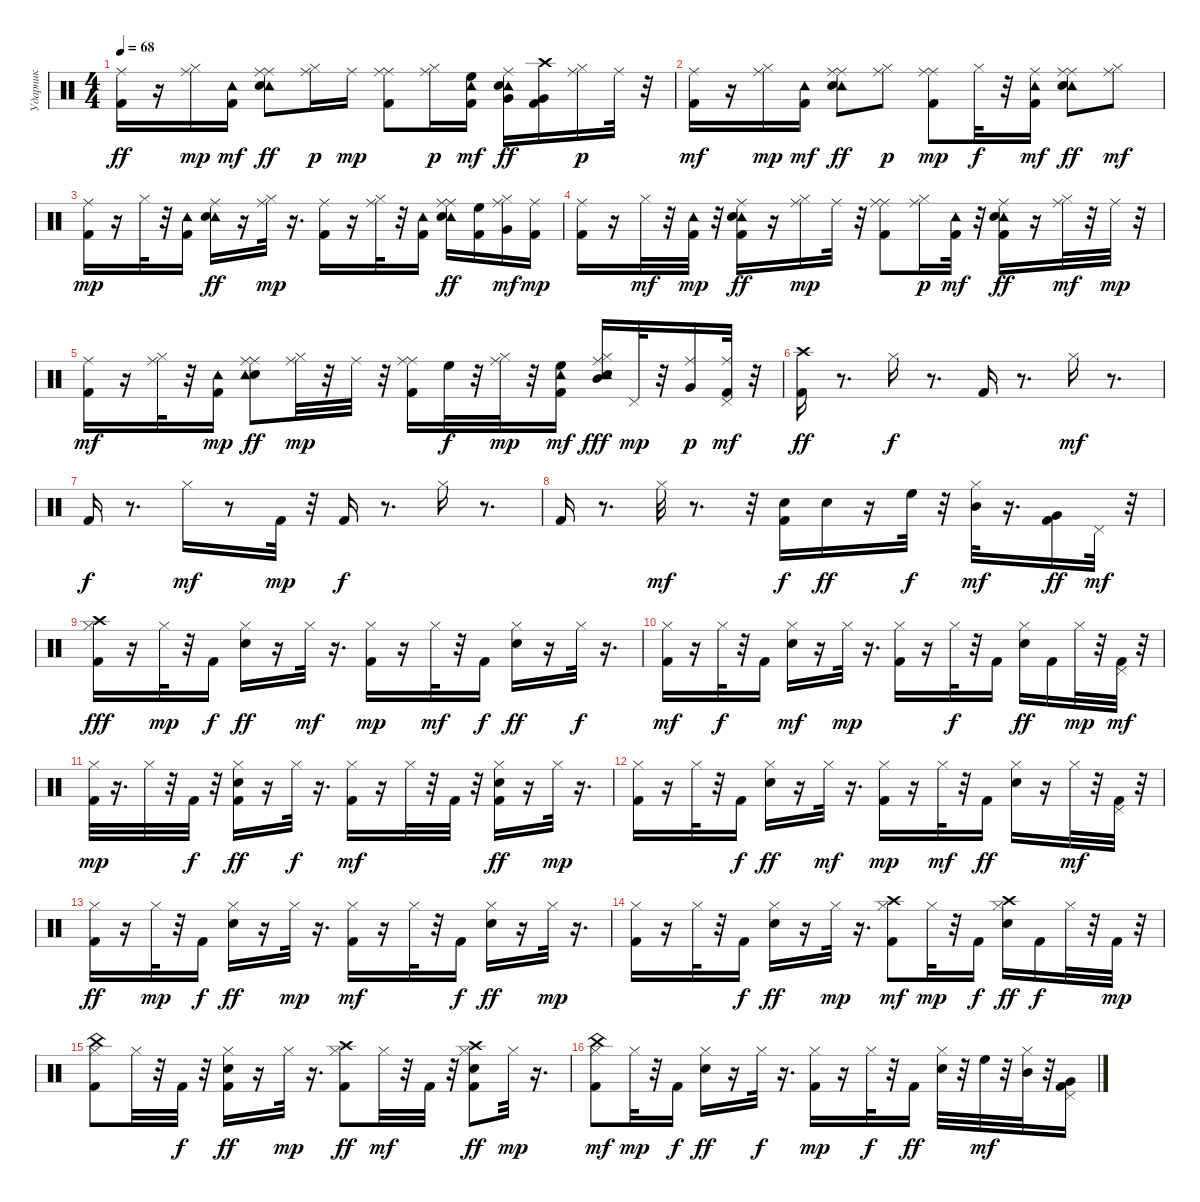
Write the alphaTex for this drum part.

\track ("Ударник" "Ударник") {instrument percussion}
\staff {score}
\articulation defaults
\ts (4 4)
\tempo 68
\clef neutral
\ks c
("Ride (middle)" "Kick (hit) 2").16{dy ff} r.16 ("Ride (middle)" "Hi-Hat (closed)").16{dy mp} ("Kick (hit) 2" "Tambourine (hit)").16{dy mf} ("Ride (middle)" "Ride (middle)" "Tambourine (hit)" "Electric Snare (hit)").8{dy ff} ("Hi-Hat (closed)" "Ride (middle)").16{dy p} "Ride (middle)".16{dy mp} ("Ride (middle)" "Kick (hit) 2" "Ride (middle)").8 ("Hi-Hat (closed)" "Ride (middle)").16{dy p} ("Kick (hit) 2" "Tambourine (hit)" "High Floor Tom (hit)").16{dy mf} ("Very Low Tom (hit)" "Ride (middle)" "Tambourine (hit)" "Electric Snare (hit)").16{dy ff} ("Kick (hit) 2" "Very Low Tom (hit)" "Crash high (hit)").16 ("Hi-Hat (closed)" "Ride (middle)").16{dy p} "Ride (middle)".32 r.32 |
("Ride (middle)" "Kick (hit) 2").16{dy mf} r.16 ("Hi-Hat (closed)" "Ride (middle)").16{dy mp} ("Kick (hit) 2" "Tambourine (hit)").16{dy mf} ("Ride (middle)" "Ride (middle)" "Tambourine (hit)" "Electric Snare (hit)").8{dy ff} ("Hi-Hat (closed)" "Ride (middle)").8{dy p} ("Kick (hit) 2" "Ride (middle)" "Ride (middle)").8{dy mp} "Hi-Hat (closed)".32{dy f} r.32 ("Ride (middle)" "Kick (hit) 2" "Tambourine (hit)").16{dy mf} ("Ride (middle)" "Ride (middle)" "Tambourine (hit)" "Electric Snare (hit)").8{dy ff} ("Ride (middle)" "Hi-Hat (closed)").8{dy mf} |
("Kick (hit) 2" "Ride (middle)").16{dy mp} r.16 "Hi-Hat (closed)".32 r.32 ("Kick (hit) 2" "Tambourine (hit)").16 ("Tambourine (hit)" "Ride (middle)" "Electric Snare (hit)").16{dy ff} r.16 ("Ride (middle)" "Hi-Hat (closed)").32{dy mp} r.16{d} ("Ride (middle)" "Kick (hit) 2").16 r.16 ("Ride (middle)" "Hi-Hat (closed)").32 r.32 ("Kick (hit) 2" "Tambourine (hit)").16 ("Ride (middle)" "Ride (middle)" "Tambourine (hit)" "Electric Snare (hit)").16{dy ff} ("Kick (hit) 2" "High Floor Tom (hit)").16 ("Ride (middle)" "Very Low Tom (hit)" "Hi-Hat (closed)").16{dy mf} ("Ride (middle)" "Kick (hit) 2").16{dy mp} |
("Kick (hit) 2" "Ride (middle)").16 r.16 "Hi-Hat (closed)".32{dy mf} r.32 ("Kick (hit) 2" "Tambourine (hit)").32{dy mp} r.32 ("Kick (hit) 2" "Ride (middle)" "Tambourine (hit)" "Electric Snare (hit)").16{dy ff} r.16 ("Ride (middle)" "Hi-Hat (closed)").16{dy mp} "Ride (middle)".32 r.32 ("Ride (middle)" "Kick (hit) 2" "Ride (middle)").8 ("Ride (middle)" "Hi-Hat (closed)").16{dy p} ("Kick (hit) 2" "Tambourine (hit)").32{dy mf} r.32 ("Kick (hit) 2" "Ride (middle)" "Tambourine (hit)" "Electric Snare (hit)").16{dy ff} r.16 ("Ride (middle)" "Hi-Hat (closed)").32{dy mf} r.32 "Ride (middle)".32{dy mp} r.32 |
("Kick (hit) 2" "Ride (middle)").16{dy mf} r.16 ("Ride (middle)" "Hi-Hat (closed)").32 r.32 ("Kick (hit) 2" "Tambourine (hit)").16{dy mp} ("Ride (middle)" "Ride (middle)" "Electric Snare (hit)" "Tambourine (hit)").8{dy ff} ("Ride (middle)" "Hi-Hat (closed)").32{dy mp} r.32 "Ride (middle)".32 r.32 ("Ride (middle)" "Kick (hit) 2" "Ride (middle)").16 "High Floor Tom (hit)".32{dy f} r.32 ("Ride (middle)" "Hi-Hat (closed)").32{dy mp} r.32 ("Kick (hit) 2" "Tambourine (hit)" "High Floor Tom (hit)").16{dy mf} ("Mid Tom (hit)" "Ride (middle)" "Hi-Hat (closed)" "Electric Snare (hit)" "Tambourine (hit)").16{dy fff} "Pedal Hi-Hat (hit)".32{dy mp} r.32 ("Very Low Tom (hit)" "Ride (middle)").16{dy p} ("Ride (middle)" "Kick (hit) 2" "Pedal Hi-Hat (hit)").32{dy mf} r.32 |
("Kick (hit) 2" "Crash high (hit)").16{dy ff} r.8{d} "Hi-Hat (closed)".16{dy f} r.8{d} "Kick (hit) 2".16 r.8{d} "Hi-Hat (closed)".16{dy mf} r.8{d} |
"Kick (hit) 2".16{dy f} r.8{d} "Hi-Hat (closed)".16{dy mf} r.8 "Kick (hit) 2".32{dy mp} r.32 "Kick (hit) 2".16{dy f} r.8{d} "Hi-Hat (closed)".16 r.8{d} |
"Kick (hit) 2".16 r.8{d} "Hi-Hat (closed)".32{dy mf} r.8{d} r.32 ("Kick (hit) 2" "Electric Snare (hit)").16{dy f} "Electric Snare (hit)".16{dy ff} r.16 "High Floor Tom (hit)".32{dy f} r.32 ("Mid Tom (hit)" "Hi-Hat (closed)").32{dy mf} r.16{d} ("Kick (hit) 2" "Very Low Tom (hit)").16{dy ff} "Pedal Hi-Hat (hit)".32{dy mf} r.32 |
("Kick (hit) 2" "Hi-Hat (closed)" "Crash high (hit)").16{dy fff} r.16 "Hi-Hat (closed)".32{dy mp} r.32 "Kick (hit) 2".16{dy f} ("Hi-Hat (closed)" "Electric Snare (hit)").16{dy ff} r.16 "Hi-Hat (closed)".32{dy mf} r.16{d} ("Kick (hit) 2" "Hi-Hat (closed)").16{dy mp} r.16 "Hi-Hat (closed)".32{dy mf} r.32 "Kick (hit) 2".16{dy f} ("Hi-Hat (closed)" "Electric Snare (hit)").16{dy ff} r.16 "Hi-Hat (closed)".32{dy f} r.16{d} |
("Kick (hit) 2" "Hi-Hat (closed)").16{dy mf} r.16 "Hi-Hat (closed)".32{dy f} r.32 "Kick (hit) 2".16 ("Electric Snare (hit)" "Hi-Hat (closed)").16{dy mf} r.16 "Hi-Hat (closed)".32{dy mp} r.16{d} ("Kick (hit) 2" "Hi-Hat (closed)").16 r.16 "Hi-Hat (closed)".32{dy f} r.32 "Kick (hit) 2".16 ("Hi-Hat (closed)" "Electric Snare (hit)").16{dy ff} "Kick (hit) 2".16 "Hi-Hat (closed)".32{dy mp} r.32 ("Kick (hit) 2" "Pedal Hi-Hat (hit)").32{dy mf} r.32 |
("Kick (hit) 2" "Hi-Hat (closed)").32{dy mp} r.16{d} "Hi-Hat (closed)".32 r.32 "Kick (hit) 2".32{dy f} r.32 ("Kick (hit) 2" "Hi-Hat (closed)" "Electric Snare (hit)").16{dy ff} r.16 "Hi-Hat (closed)".32{dy f} r.16{d} ("Kick (hit) 2" "Hi-Hat (closed)").16{dy mf} r.16 "Hi-Hat (closed)".32 r.32 "Kick (hit) 2".32 r.32 ("Kick (hit) 2" "Hi-Hat (closed)" "Electric Snare (hit)").16{dy ff} r.16 "Hi-Hat (closed)".32{dy mp} r.16{d} |
("Hi-Hat (closed)" "Kick (hit) 2").16 r.16 "Hi-Hat (closed)".32 r.32 "Kick (hit) 2".16{dy f} ("Hi-Hat (closed)" "Electric Snare (hit)").16{dy ff} r.16 "Hi-Hat (closed)".32{dy mf} r.16{d} ("Kick (hit) 2" "Hi-Hat (closed)").16{dy mp} r.16 "Hi-Hat (closed)".32{dy mf} r.32 "Kick (hit) 2".16{dy ff} ("Hi-Hat (closed)" "Electric Snare (hit)").16 r.16 "Hi-Hat (closed)".32{dy mf} r.32 ("Kick (hit) 2" "Pedal Hi-Hat (hit)").32 r.32 |
("Kick (hit) 2" "Hi-Hat (closed)").16{dy ff} r.16 "Hi-Hat (closed)".32{dy mp} r.32 "Kick (hit) 2".16{dy f} ("Hi-Hat (closed)" "Electric Snare (hit)").16{dy ff} r.16 "Hi-Hat (closed)".32{dy mp} r.16{d} ("Kick (hit) 2" "Hi-Hat (closed)").16{dy mf} r.16 "Hi-Hat (closed)".32 r.32 "Kick (hit) 2".16{dy f} ("Hi-Hat (closed)" "Electric Snare (hit)").16{dy ff} r.16 "Hi-Hat (closed)".32{dy mp} r.16{d} |
("Kick (hit) 2" "Hi-Hat (closed)").16 r.16 "Hi-Hat (closed)".32 r.32 "Kick (hit) 2".16{dy f} ("Hi-Hat (closed)" "Electric Snare (hit)").16{dy ff} r.16 "Hi-Hat (closed)".32{dy mp} r.16{d} ("Crash high (hit)" "Kick (hit) 2" "Hi-Hat (closed)").8{dy mf} "Hi-Hat (closed)".32{dy mp} r.32 "Kick (hit) 2".16{dy f} ("Crash high (hit)" "Hi-Hat (closed)" "Electric Snare (hit)").16{dy ff} "Kick (hit) 2".16{dy f} "Hi-Hat (closed)".32 r.32 "Kick (hit) 2".32{dy mp} r.32 |
("China (hit)" "Hi-Hat (closed)" "Kick (hit) 2").8 "Hi-Hat (closed)".32 r.32 "Kick (hit) 2".32{dy f} r.32 ("Kick (hit) 2" "Hi-Hat (closed)" "Electric Snare (hit)").16{dy ff} r.16 "Hi-Hat (closed)".32{dy mp} r.16{d} ("Crash high (hit)" "Hi-Hat (closed)" "Kick (hit) 2").8{dy ff} "Hi-Hat (closed)".32{dy mf} r.32 "Kick (hit) 2".32 r.32 ("Crash high (hit)" "Kick (hit) 2" "Hi-Hat (closed)" "Electric Snare (hit)").8{dy ff} "Hi-Hat (closed)".32{dy mp} r.16{d} |
("China (hit)" "Kick (hit) 2" "Hi-Hat (closed)").8{dy mf} "Hi-Hat (closed)".32{dy mp} r.32 "Kick (hit) 2".16{dy f} ("Hi-Hat (closed)" "Electric Snare (hit)").16{dy ff} r.16 "Hi-Hat (closed)".32{dy f} r.16{d} ("Kick (hit) 2" "Hi-Hat (closed)").16{dy mp} r.16 "Hi-Hat (closed)".32{dy f} r.32 "Kick (hit) 2".16{dy ff} ("Hi-Hat (closed)" "Electric Snare (hit)").32 r.32 "High Floor Tom (hit)".32{dy mf} r.32 ("Hi-Hat (closed)" "Mid Tom (hit)").32 r.32 ("Pedal Hi-Hat (hit)" "Kick (hit) 2" "Very Low Tom (hit)").16
